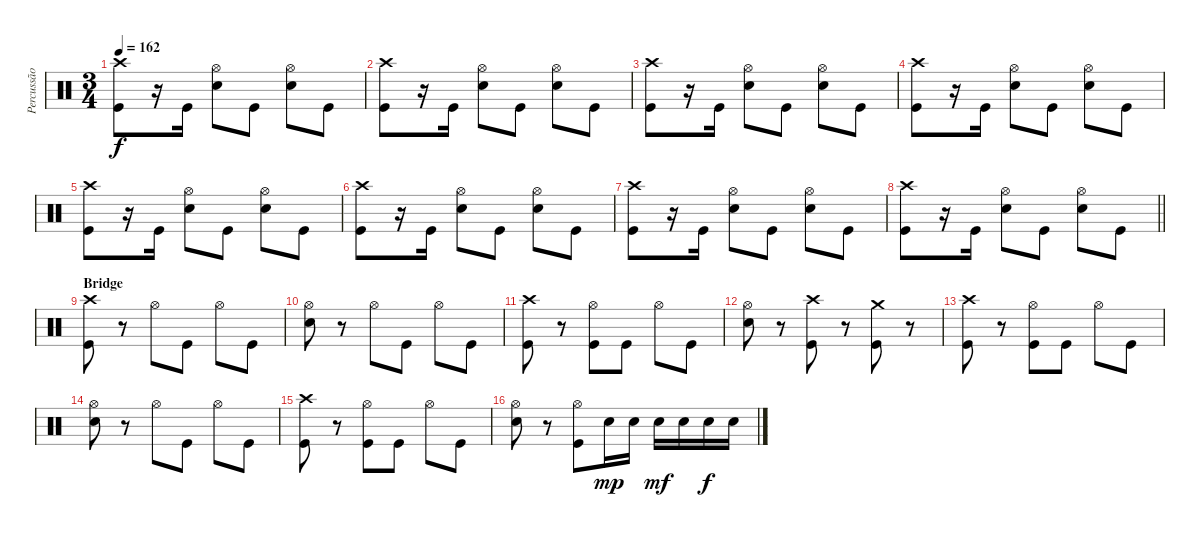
\track ("Percussão" "Percussão") {instrument percussion}
\staff {score}
\articulation defaults
\ts (3 4)
\tempo 162
\clef neutral
\ks c
("Crash high (hit)" "Kick (hit)").8{dy f} r.16 "Kick (hit)".16 ("Hi-Hat (open)" "Snare (hit) 2").8 "Kick (hit)".8 ("Hi-Hat (open)" "Snare (hit) 2").8 "Kick (hit)".8 |
("Crash high (hit)" "Kick (hit)").8 r.16 "Kick (hit)".16 ("Hi-Hat (open)" "Snare (hit) 2").8 "Kick (hit)".8 ("Hi-Hat (open)" "Snare (hit) 2").8 "Kick (hit)".8 |
("Crash high (hit)" "Kick (hit)").8 r.16 "Kick (hit)".16 ("Hi-Hat (open)" "Snare (hit) 2").8 "Kick (hit)".8 ("Hi-Hat (open)" "Snare (hit) 2").8 "Kick (hit)".8 |
("Crash high (hit)" "Kick (hit)").8 r.16 "Kick (hit)".16 ("Hi-Hat (open)" "Snare (hit) 2").8 "Kick (hit)".8 ("Hi-Hat (open)" "Snare (hit) 2").8 "Kick (hit)".8 |
("Crash high (hit)" "Kick (hit)").8 r.16 "Kick (hit)".16 ("Hi-Hat (open)" "Snare (hit) 2").8 "Kick (hit)".8 ("Hi-Hat (open)" "Snare (hit) 2").8 "Kick (hit)".8 |
("Crash high (hit)" "Kick (hit)").8 r.16 "Kick (hit)".16 ("Hi-Hat (open)" "Snare (hit) 2").8 "Kick (hit)".8 ("Hi-Hat (open)" "Snare (hit) 2").8 "Kick (hit)".8 |
("Crash high (hit)" "Kick (hit)").8 r.16 "Kick (hit)".16 ("Hi-Hat (open)" "Snare (hit) 2").8 "Kick (hit)".8 ("Hi-Hat (open)" "Snare (hit) 2").8 "Kick (hit)".8 |
\barLineRight lightlight
("Crash high (hit)" "Kick (hit)").8 r.16 "Kick (hit)".16 ("Hi-Hat (open)" "Snare (hit) 2").8 "Kick (hit)".8 ("Hi-Hat (open)" "Snare (hit) 2").8 "Kick (hit)".8 |
\section ("" "Bridge")
("Crash high (hit)" "Kick (hit)").8 r.8 "Hi-Hat (open)".8 "Kick (hit)".8 "Hi-Hat (open)".8 "Kick (hit)".8 |
("Hi-Hat (open)" "Snare (hit) 2").8 r.8 "Hi-Hat (open)".8 "Kick (hit)".8 "Hi-Hat (open)".8 "Kick (hit)".8 |
("Crash high (hit)" "Kick (hit)").8 r.8 ("Hi-Hat (open)" "Kick (hit)").8 "Kick (hit)".8 "Hi-Hat (open)".8 "Kick (hit)".8 |
("Hi-Hat (open)" "Snare (hit) 2").8 r.8 ("Crash high (hit)" "Kick (hit)").8 r.8 ("Crash medium (hit)" "Kick (hit)").8 r.8 |
("Crash high (hit)" "Kick (hit)").8 r.8 ("Hi-Hat (open)" "Kick (hit)").8 "Kick (hit)".8 "Hi-Hat (open)".8 "Kick (hit)".8 |
("Hi-Hat (open)" "Snare (hit) 2").8 r.8 "Hi-Hat (open)".8 "Kick (hit)".8 "Hi-Hat (open)".8 "Kick (hit)".8 |
("Crash high (hit)" "Kick (hit)").8 r.8 ("Hi-Hat (open)" "Kick (hit)").8 "Kick (hit)".8 "Hi-Hat (open)".8 "Kick (hit)".8 |
("Hi-Hat (open)" "Snare (hit) 2").8 r.8 ("Hi-Hat (open)" "Kick (hit)").8 "Snare (hit) 2".16{dy mp} "Snare (hit) 2".16 "Snare (hit) 2".16{dy mf} "Snare (hit) 2".16 "Snare (hit) 2".16{dy f} "Snare (hit) 2".16
